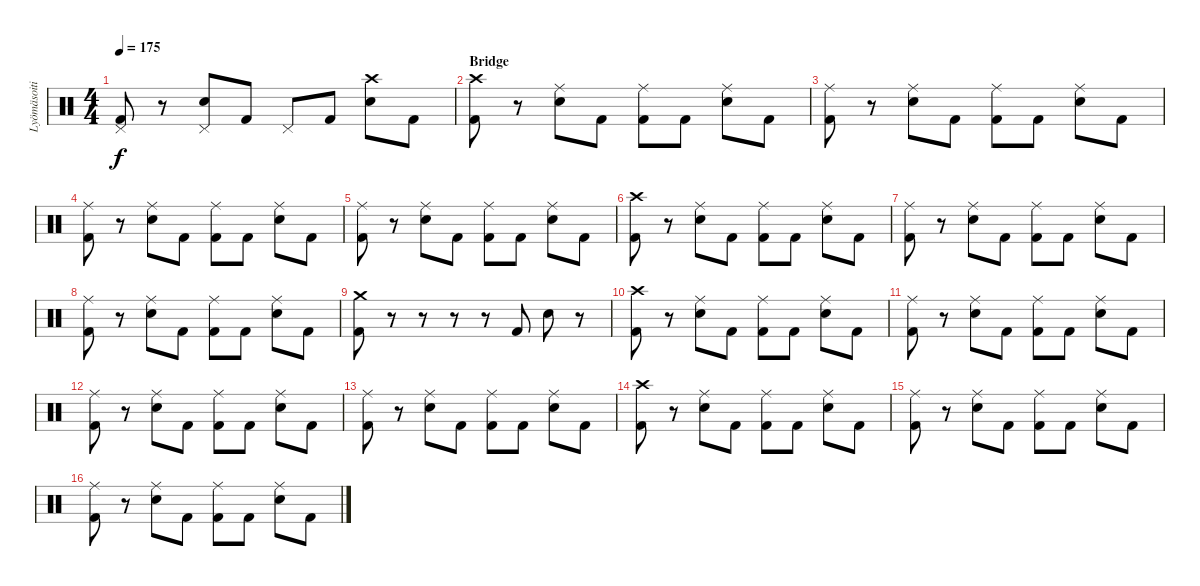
\track ("Lyömäsoitin" "Lyömäsoiti") {instrument percussion}
\staff {score}
\articulation defaults
\ts (4 4)
\tempo 175
\clef neutral
\ks c
("Pedal Hi-Hat (hit)" "Kick (hit) 2").8{dy f} r.8 ("Pedal Hi-Hat (hit)" "Electric Snare (hit)").8 "Kick (hit) 2".8 "Pedal Hi-Hat (hit)".8 "Kick (hit) 2".8 ("Crash high (hit)" "Electric Snare (hit)").8 "Kick (hit) 2".8 |
\section ("" "Bridge")
("Crash high (hit)" "Kick (hit) 2").8 r.8 ("Ride (middle)" "Electric Snare (hit)").8 "Kick (hit) 2".8 ("Ride (middle)" "Kick (hit) 2").8 "Kick (hit) 2".8 ("Ride (middle)" "Electric Snare (hit)").8 "Kick (hit) 2".8 |
("Ride (middle)" "Kick (hit) 2").8 r.8 ("Ride (middle)" "Electric Snare (hit)").8 "Kick (hit) 2".8 ("Ride (middle)" "Kick (hit) 2").8 "Kick (hit) 2".8 ("Ride (middle)" "Electric Snare (hit)").8 "Kick (hit) 2".8 |
("Ride (middle)" "Kick (hit) 2").8 r.8 ("Ride (middle)" "Electric Snare (hit)").8 "Kick (hit) 2".8 ("Ride (middle)" "Kick (hit) 2").8 "Kick (hit) 2".8 ("Ride (middle)" "Electric Snare (hit)").8 "Kick (hit) 2".8 |
("Ride (middle)" "Kick (hit) 2").8 r.8 ("Ride (middle)" "Electric Snare (hit)").8 "Kick (hit) 2".8 ("Ride (middle)" "Kick (hit) 2").8 "Kick (hit) 2".8 ("Ride (middle)" "Electric Snare (hit)").8 "Kick (hit) 2".8 |
("Crash high (hit)" "Kick (hit) 2").8 r.8 ("Ride (middle)" "Electric Snare (hit)").8 "Kick (hit) 2".8 ("Ride (middle)" "Kick (hit) 2").8 "Kick (hit) 2".8 ("Ride (middle)" "Electric Snare (hit)").8 "Kick (hit) 2".8 |
("Ride (middle)" "Kick (hit) 2").8 r.8 ("Ride (middle)" "Electric Snare (hit)").8 "Kick (hit) 2".8 ("Ride (middle)" "Kick (hit) 2").8 "Kick (hit) 2".8 ("Ride (middle)" "Electric Snare (hit)").8 "Kick (hit) 2".8 |
("Ride (middle)" "Kick (hit) 2").8 r.8 ("Ride (middle)" "Electric Snare (hit)").8 "Kick (hit) 2".8 ("Ride (middle)" "Kick (hit) 2").8 "Kick (hit) 2".8 ("Ride (middle)" "Electric Snare (hit)").8 "Kick (hit) 2".8 |
("Crash medium (hit)" "Kick (hit) 2").8 r.8 r.8 r.8 r.8 "Kick (hit) 2".8 "Electric Snare (hit)".8 r.8 |
("Crash high (hit)" "Kick (hit) 2").8 r.8 ("Ride (middle)" "Electric Snare (hit)").8 "Kick (hit) 2".8 ("Ride (middle)" "Kick (hit) 2").8 "Kick (hit) 2".8 ("Ride (middle)" "Electric Snare (hit)").8 "Kick (hit) 2".8 |
("Ride (middle)" "Kick (hit) 2").8 r.8 ("Ride (middle)" "Electric Snare (hit)").8 "Kick (hit) 2".8 ("Ride (middle)" "Kick (hit) 2").8 "Kick (hit) 2".8 ("Ride (middle)" "Electric Snare (hit)").8 "Kick (hit) 2".8 |
("Ride (middle)" "Kick (hit) 2").8 r.8 ("Ride (middle)" "Electric Snare (hit)").8 "Kick (hit) 2".8 ("Ride (middle)" "Kick (hit) 2").8 "Kick (hit) 2".8 ("Ride (middle)" "Electric Snare (hit)").8 "Kick (hit) 2".8 |
("Ride (middle)" "Kick (hit) 2").8 r.8 ("Ride (middle)" "Electric Snare (hit)").8 "Kick (hit) 2".8 ("Ride (middle)" "Kick (hit) 2").8 "Kick (hit) 2".8 ("Ride (middle)" "Electric Snare (hit)").8 "Kick (hit) 2".8 |
("Crash high (hit)" "Kick (hit) 2").8 r.8 ("Ride (middle)" "Electric Snare (hit)").8 "Kick (hit) 2".8 ("Ride (middle)" "Kick (hit) 2").8 "Kick (hit) 2".8 ("Ride (middle)" "Electric Snare (hit)").8 "Kick (hit) 2".8 |
("Ride (middle)" "Kick (hit) 2").8 r.8 ("Ride (middle)" "Electric Snare (hit)").8 "Kick (hit) 2".8 ("Ride (middle)" "Kick (hit) 2").8 "Kick (hit) 2".8 ("Ride (middle)" "Electric Snare (hit)").8 "Kick (hit) 2".8 |
("Ride (middle)" "Kick (hit) 2").8 r.8 ("Ride (middle)" "Electric Snare (hit)").8 "Kick (hit) 2".8 ("Ride (middle)" "Kick (hit) 2").8 "Kick (hit) 2".8 ("Ride (middle)" "Electric Snare (hit)").8 "Kick (hit) 2".8
